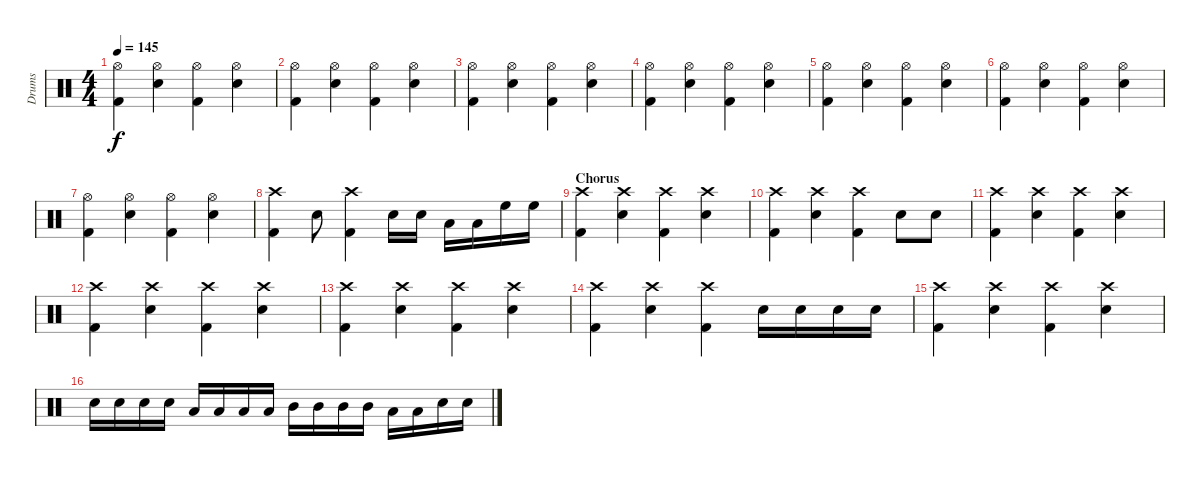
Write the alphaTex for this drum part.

\track ("Drums" "Drums") {instrument percussion}
\staff {score}
\articulation defaults
\ts (4 4)
\tempo 145
\clef neutral
\ks c
("Hi-Hat (open)" "Kick (hit) 2").4{dy f} ("Hi-Hat (open)" "Electric Snare (hit)").4 ("Hi-Hat (open)" "Kick (hit) 2").4 ("Hi-Hat (open)" "Electric Snare (hit)").4 |
("Hi-Hat (open)" "Kick (hit) 2").4 ("Hi-Hat (open)" "Electric Snare (hit)").4 ("Hi-Hat (open)" "Kick (hit) 2").4 ("Hi-Hat (open)" "Electric Snare (hit)").4 |
("Hi-Hat (open)" "Kick (hit) 2").4 ("Hi-Hat (open)" "Electric Snare (hit)").4 ("Hi-Hat (open)" "Kick (hit) 2").4 ("Hi-Hat (open)" "Electric Snare (hit)").4 |
("Hi-Hat (open)" "Kick (hit) 2").4 ("Hi-Hat (open)" "Electric Snare (hit)").4 ("Hi-Hat (open)" "Kick (hit) 2").4 ("Hi-Hat (open)" "Electric Snare (hit)").4 |
("Hi-Hat (open)" "Kick (hit) 2").4 ("Hi-Hat (open)" "Electric Snare (hit)").4 ("Hi-Hat (open)" "Kick (hit) 2").4 ("Hi-Hat (open)" "Electric Snare (hit)").4 |
("Hi-Hat (open)" "Kick (hit) 2").4 ("Hi-Hat (open)" "Electric Snare (hit)").4 ("Hi-Hat (open)" "Kick (hit) 2").4 ("Hi-Hat (open)" "Electric Snare (hit)").4 |
("Hi-Hat (open)" "Kick (hit) 2").4 ("Hi-Hat (open)" "Electric Snare (hit)").4 ("Hi-Hat (open)" "Kick (hit) 2").4 ("Hi-Hat (open)" "Electric Snare (hit)").4 |
("Crash high (hit)" "Kick (hit) 2").4 "Electric Snare (hit)".8 ("Crash high (hit)" "Kick (hit) 2").4 "Electric Snare (hit)".16 "Electric Snare (hit)".16 "Low Tom (hit)".16 "Low Tom (hit)".16 "High Floor Tom (hit)".16 "High Floor Tom (hit)".16 |
\section ("" "Chorus")
("Crash high (hit)" "Kick (hit) 2").4 ("Crash high (hit)" "Electric Snare (hit)").4 ("Crash high (hit)" "Kick (hit) 2").4 ("Crash high (hit)" "Electric Snare (hit)").4 |
("Crash high (hit)" "Kick (hit) 2").4 ("Crash high (hit)" "Electric Snare (hit)").4 ("Crash high (hit)" "Kick (hit) 2").4 "Electric Snare (hit)".8 "Electric Snare (hit)".8 |
("Crash high (hit)" "Kick (hit) 2").4 ("Crash high (hit)" "Electric Snare (hit)").4 ("Crash high (hit)" "Kick (hit) 2").4 ("Crash high (hit)" "Electric Snare (hit)").4 |
("Crash high (hit)" "Kick (hit) 2").4 ("Crash high (hit)" "Electric Snare (hit)").4 ("Crash high (hit)" "Kick (hit) 2").4 ("Crash high (hit)" "Electric Snare (hit)").4 |
("Crash high (hit)" "Kick (hit) 2").4 ("Crash high (hit)" "Electric Snare (hit)").4 ("Crash high (hit)" "Kick (hit) 2").4 ("Crash high (hit)" "Electric Snare (hit)").4 |
("Crash high (hit)" "Kick (hit) 2").4 ("Crash high (hit)" "Electric Snare (hit)").4 ("Crash high (hit)" "Kick (hit) 2").4 "Electric Snare (hit)".16 "Electric Snare (hit)".16 "Electric Snare (hit)".16 "Electric Snare (hit)".16 |
("Crash high (hit)" "Kick (hit) 2").4 ("Crash high (hit)" "Electric Snare (hit)").4 ("Crash high (hit)" "Kick (hit) 2").4 ("Crash high (hit)" "Electric Snare (hit)").4 |
"Electric Snare (hit)".16 "Electric Snare (hit)".16 "Electric Snare (hit)".16 "Electric Snare (hit)".16 "Low Tom (hit)".16 "Low Tom (hit)".16 "Low Tom (hit)".16 "Low Tom (hit)".16 "Mid Tom (hit)".16 "Mid Tom (hit)".16 "Mid Tom (hit)".16 "Mid Tom (hit)".16 "Low Tom (hit)".16 "Low Tom (hit)".16 "Electric Snare (hit)".16 "Electric Snare (hit)".16
